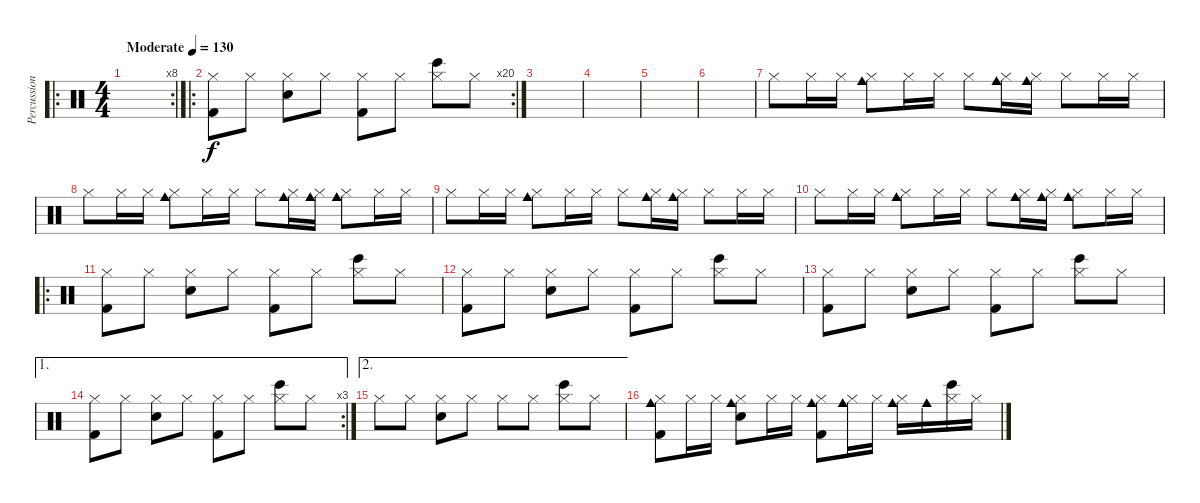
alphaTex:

\track ("Percussions" "Percussion") {instrument percussion}
\staff {score}
\articulation defaults
\ro
\rc 8
\ts (4 4)
\tempo (130 "Moderate")
\clef neutral
\ks c
|
\ro
\rc 20
("Kick (hit) 2" "Hi-Hat (closed)").8 "Hi-Hat (closed)".8 ("Electric Snare (hit)" "Hi-Hat (closed)").8 "Hi-Hat (closed)".8 ("Kick (hit) 2" "Hi-Hat (closed)").8 "Hi-Hat (closed)".8 ("Bongo High (hit)" "Hi-Hat (closed)").8 "Hi-Hat (closed)".8 |
|
|
|
|
"Hi-Hat (closed)".8 "Hi-Hat (closed)".16 "Hi-Hat (closed)".16 ("Cowbell medium (hit)" "Hi-Hat (closed)").8 "Hi-Hat (closed)".16 "Hi-Hat (closed)".16 "Hi-Hat (closed)".8 ("Cowbell medium (hit)" "Hi-Hat (closed)").16 ("Cowbell medium (hit)" "Hi-Hat (closed)").16 "Hi-Hat (closed)".8 "Hi-Hat (closed)".16 "Hi-Hat (closed)".16 |
"Hi-Hat (closed)".8 "Hi-Hat (closed)".16 "Hi-Hat (closed)".16 ("Cowbell medium (hit)" "Hi-Hat (closed)").8 "Hi-Hat (closed)".16 "Hi-Hat (closed)".16 "Hi-Hat (closed)".8 ("Cowbell medium (hit)" "Hi-Hat (closed)").16 ("Cowbell medium (hit)" "Hi-Hat (closed)").16 ("Cowbell medium (hit)" "Hi-Hat (closed)").8 "Hi-Hat (closed)".16 "Hi-Hat (closed)".16 |
"Hi-Hat (closed)".8 "Hi-Hat (closed)".16 "Hi-Hat (closed)".16 ("Cowbell medium (hit)" "Hi-Hat (closed)").8 "Hi-Hat (closed)".16 "Hi-Hat (closed)".16 "Hi-Hat (closed)".8 ("Cowbell medium (hit)" "Hi-Hat (closed)").16 ("Cowbell medium (hit)" "Hi-Hat (closed)").16 "Hi-Hat (closed)".8 "Hi-Hat (closed)".16 "Hi-Hat (closed)".16 |
"Hi-Hat (closed)".8 "Hi-Hat (closed)".16 "Hi-Hat (closed)".16 ("Cowbell medium (hit)" "Hi-Hat (closed)").8 "Hi-Hat (closed)".16 "Hi-Hat (closed)".16 "Hi-Hat (closed)".8 ("Cowbell medium (hit)" "Hi-Hat (closed)").16 ("Cowbell medium (hit)" "Hi-Hat (closed)").16 ("Cowbell medium (hit)" "Hi-Hat (closed)").8 "Hi-Hat (closed)".16 "Hi-Hat (closed)".16 |
\ro
("Kick (hit) 2" "Hi-Hat (closed)").8 "Hi-Hat (closed)".8 ("Electric Snare (hit)" "Hi-Hat (closed)").8 "Hi-Hat (closed)".8 ("Kick (hit) 2" "Hi-Hat (closed)").8 "Hi-Hat (closed)".8 ("Bongo High (hit)" "Hi-Hat (closed)").8 "Hi-Hat (closed)".8 |
("Kick (hit) 2" "Hi-Hat (closed)").8 "Hi-Hat (closed)".8 ("Electric Snare (hit)" "Hi-Hat (closed)").8 "Hi-Hat (closed)".8 ("Kick (hit) 2" "Hi-Hat (closed)").8 "Hi-Hat (closed)".8 ("Bongo High (hit)" "Hi-Hat (closed)").8 "Hi-Hat (closed)".8 |
("Kick (hit) 2" "Hi-Hat (closed)").8 "Hi-Hat (closed)".8 ("Electric Snare (hit)" "Hi-Hat (closed)").8 "Hi-Hat (closed)".8 ("Kick (hit) 2" "Hi-Hat (closed)").8 "Hi-Hat (closed)".8 ("Bongo High (hit)" "Hi-Hat (closed)").8 "Hi-Hat (closed)".8 |
\ae 1
\rc 3
("Kick (hit) 2" "Hi-Hat (closed)").8 "Hi-Hat (closed)".8 ("Electric Snare (hit)" "Hi-Hat (closed)").8 "Hi-Hat (closed)".8 ("Kick (hit) 2" "Hi-Hat (closed)").8 "Hi-Hat (closed)".8 ("Bongo High (hit)" "Hi-Hat (closed)").8 "Hi-Hat (closed)".8 |
\ae 2 "Hi-Hat (closed)".8 "Hi-Hat (closed)".8
("Electric Snare (hit)" "Hi-Hat (closed)").8 "Hi-Hat (closed)".8 "Hi-Hat (closed)".8 "Hi-Hat (closed)".8 ("Bongo High (hit)" "Hi-Hat (closed)").8 "Hi-Hat (closed)".8 |
("Cowbell medium (hit)" "Kick (hit) 2" "Hi-Hat (closed)").8 "Hi-Hat (closed)".16 "Hi-Hat (closed)".16 ("Cowbell medium (hit)" "Electric Snare (hit)" "Hi-Hat (closed)").8 "Hi-Hat (closed)".16 "Hi-Hat (closed)".16 ("Cowbell medium (hit)" "Kick (hit) 2" "Hi-Hat (closed)").8 ("Cowbell medium (hit)" "Hi-Hat (closed)").16 "Hi-Hat (closed)".16 ("Cowbell medium (hit)" "Hi-Hat (closed)").16 "Cowbell medium (hit)".16 ("Bongo High (hit)" "Hi-Hat (closed)").16 "Hi-Hat (closed)".16
